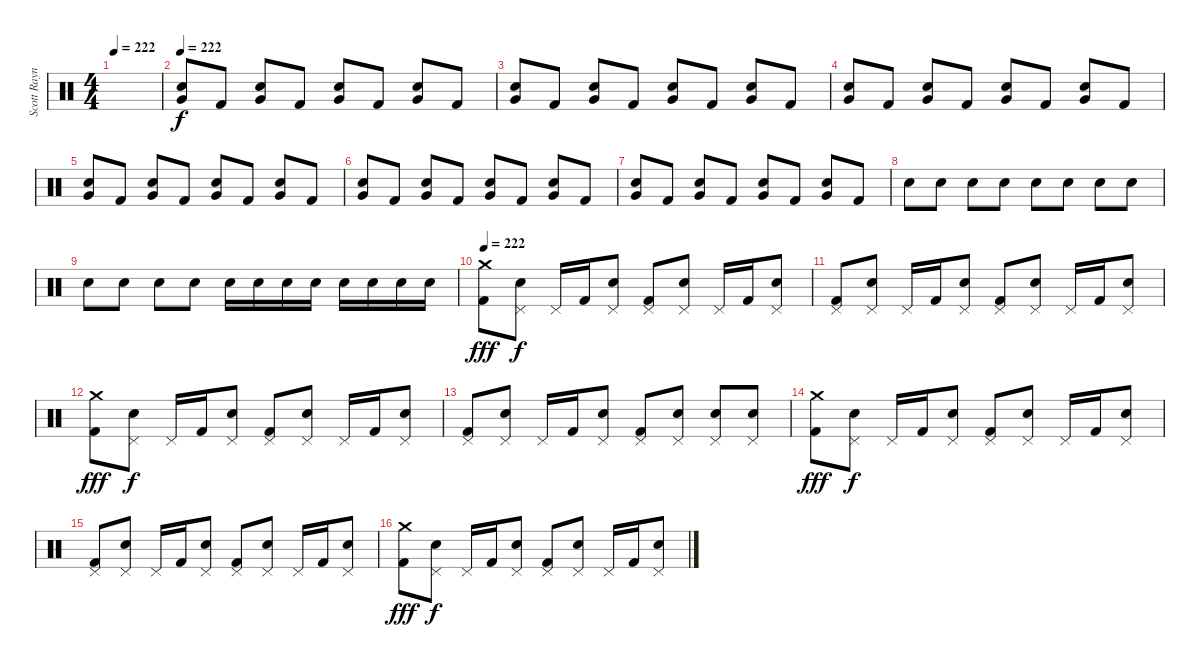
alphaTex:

\track ("Scott Raynor - Bateria/Drums" "Scott Rayn") {instrument percussion}
\staff {score}
\articulation defaults
\ts (4 4)
\tempo 222
\clef neutral
\ks c
|
\tempo 222
("Electric Snare (hit)" "Very Low Tom (hit)").8 "Kick (hit) 2".8 ("Electric Snare (hit)" "Very Low Tom (hit)").8 "Kick (hit) 2".8 ("Electric Snare (hit)" "Very Low Tom (hit)").8 "Kick (hit) 2".8 ("Electric Snare (hit)" "Very Low Tom (hit)").8 "Kick (hit) 2".8 |
("Electric Snare (hit)" "Very Low Tom (hit)").8 "Kick (hit) 2".8 ("Electric Snare (hit)" "Very Low Tom (hit)").8 "Kick (hit) 2".8 ("Electric Snare (hit)" "Very Low Tom (hit)").8 "Kick (hit) 2".8 ("Electric Snare (hit)" "Very Low Tom (hit)").8 "Kick (hit) 2".8 |
("Electric Snare (hit)" "Very Low Tom (hit)").8 "Kick (hit) 2".8 ("Electric Snare (hit)" "Very Low Tom (hit)").8 "Kick (hit) 2".8 ("Electric Snare (hit)" "Very Low Tom (hit)").8 "Kick (hit) 2".8 ("Electric Snare (hit)" "Very Low Tom (hit)").8 "Kick (hit) 2".8 |
("Electric Snare (hit)" "Very Low Tom (hit)").8 "Kick (hit) 2".8 ("Electric Snare (hit)" "Very Low Tom (hit)").8 "Kick (hit) 2".8 ("Electric Snare (hit)" "Very Low Tom (hit)").8 "Kick (hit) 2".8 ("Electric Snare (hit)" "Very Low Tom (hit)").8 "Kick (hit) 2".8 |
("Electric Snare (hit)" "Very Low Tom (hit)").8 "Kick (hit) 2".8 ("Electric Snare (hit)" "Very Low Tom (hit)").8 "Kick (hit) 2".8 ("Electric Snare (hit)" "Very Low Tom (hit)").8 "Kick (hit) 2".8 ("Electric Snare (hit)" "Very Low Tom (hit)").8 "Kick (hit) 2".8 |
("Electric Snare (hit)" "Very Low Tom (hit)").8 "Kick (hit) 2".8 ("Electric Snare (hit)" "Very Low Tom (hit)").8 "Kick (hit) 2".8 ("Electric Snare (hit)" "Very Low Tom (hit)").8 "Kick (hit) 2".8 ("Electric Snare (hit)" "Very Low Tom (hit)").8 "Kick (hit) 2".8 |
"Electric Snare (hit)".8 "Electric Snare (hit)".8 "Electric Snare (hit)".8 "Electric Snare (hit)".8 "Electric Snare (hit)".8 "Electric Snare (hit)".8 "Electric Snare (hit)".8 "Electric Snare (hit)".8 |
"Electric Snare (hit)".8 "Electric Snare (hit)".8 "Electric Snare (hit)".8 "Electric Snare (hit)".8 "Electric Snare (hit)".16 "Electric Snare (hit)".16 "Electric Snare (hit)".16 "Electric Snare (hit)".16 "Electric Snare (hit)".16 "Electric Snare (hit)".16 "Electric Snare (hit)".16 "Electric Snare (hit)".16 |
\tempo 222
("Crash medium (hit)" "Kick (hit) 2").8{dy fff} ("Pedal Hi-Hat (hit)" "Electric Snare (hit)").8{dy f} "Pedal Hi-Hat (hit)".16 "Kick (hit) 2".16 ("Pedal Hi-Hat (hit)" "Electric Snare (hit)").8 ("Pedal Hi-Hat (hit)" "Kick (hit) 2").8 ("Pedal Hi-Hat (hit)" "Electric Snare (hit)").8 "Pedal Hi-Hat (hit)".16 "Kick (hit) 2".16 ("Pedal Hi-Hat (hit)" "Electric Snare (hit)").8 |
("Pedal Hi-Hat (hit)" "Kick (hit) 2").8 ("Pedal Hi-Hat (hit)" "Electric Snare (hit)").8 "Pedal Hi-Hat (hit)".16 "Kick (hit) 2".16 ("Pedal Hi-Hat (hit)" "Electric Snare (hit)").8 ("Pedal Hi-Hat (hit)" "Kick (hit) 2").8 ("Pedal Hi-Hat (hit)" "Electric Snare (hit)").8 "Pedal Hi-Hat (hit)".16 "Kick (hit) 2".16 ("Pedal Hi-Hat (hit)" "Electric Snare (hit)").8 |
("Crash medium (hit)" "Kick (hit) 2").8{dy fff} ("Pedal Hi-Hat (hit)" "Electric Snare (hit)").8{dy f} "Pedal Hi-Hat (hit)".16 "Kick (hit) 2".16 ("Pedal Hi-Hat (hit)" "Electric Snare (hit)").8 ("Pedal Hi-Hat (hit)" "Kick (hit) 2").8 ("Pedal Hi-Hat (hit)" "Electric Snare (hit)").8 "Pedal Hi-Hat (hit)".16 "Kick (hit) 2".16 ("Pedal Hi-Hat (hit)" "Electric Snare (hit)").8 |
("Pedal Hi-Hat (hit)" "Kick (hit) 2").8 ("Pedal Hi-Hat (hit)" "Electric Snare (hit)").8 "Pedal Hi-Hat (hit)".16 "Kick (hit) 2".16 ("Pedal Hi-Hat (hit)" "Electric Snare (hit)").8 ("Pedal Hi-Hat (hit)" "Kick (hit) 2").8 ("Pedal Hi-Hat (hit)" "Electric Snare (hit)").8 ("Pedal Hi-Hat (hit)" "Electric Snare (hit)").8 ("Pedal Hi-Hat (hit)" "Electric Snare (hit)").8 |
("Crash medium (hit)" "Kick (hit) 2").8{dy fff} ("Pedal Hi-Hat (hit)" "Electric Snare (hit)").8{dy f} "Pedal Hi-Hat (hit)".16 "Kick (hit) 2".16 ("Pedal Hi-Hat (hit)" "Electric Snare (hit)").8 ("Pedal Hi-Hat (hit)" "Kick (hit) 2").8 ("Pedal Hi-Hat (hit)" "Electric Snare (hit)").8 "Pedal Hi-Hat (hit)".16 "Kick (hit) 2".16 ("Pedal Hi-Hat (hit)" "Electric Snare (hit)").8 |
("Pedal Hi-Hat (hit)" "Kick (hit) 2").8 ("Pedal Hi-Hat (hit)" "Electric Snare (hit)").8 "Pedal Hi-Hat (hit)".16 "Kick (hit) 2".16 ("Pedal Hi-Hat (hit)" "Electric Snare (hit)").8 ("Pedal Hi-Hat (hit)" "Kick (hit) 2").8 ("Pedal Hi-Hat (hit)" "Electric Snare (hit)").8 "Pedal Hi-Hat (hit)".16 "Kick (hit) 2".16 ("Pedal Hi-Hat (hit)" "Electric Snare (hit)").8 |
("Crash medium (hit)" "Kick (hit) 2").8{dy fff} ("Pedal Hi-Hat (hit)" "Electric Snare (hit)").8{dy f} "Pedal Hi-Hat (hit)".16 "Kick (hit) 2".16 ("Pedal Hi-Hat (hit)" "Electric Snare (hit)").8 ("Pedal Hi-Hat (hit)" "Kick (hit) 2").8 ("Pedal Hi-Hat (hit)" "Electric Snare (hit)").8 "Pedal Hi-Hat (hit)".16 "Kick (hit) 2".16 ("Pedal Hi-Hat (hit)" "Electric Snare (hit)").8
